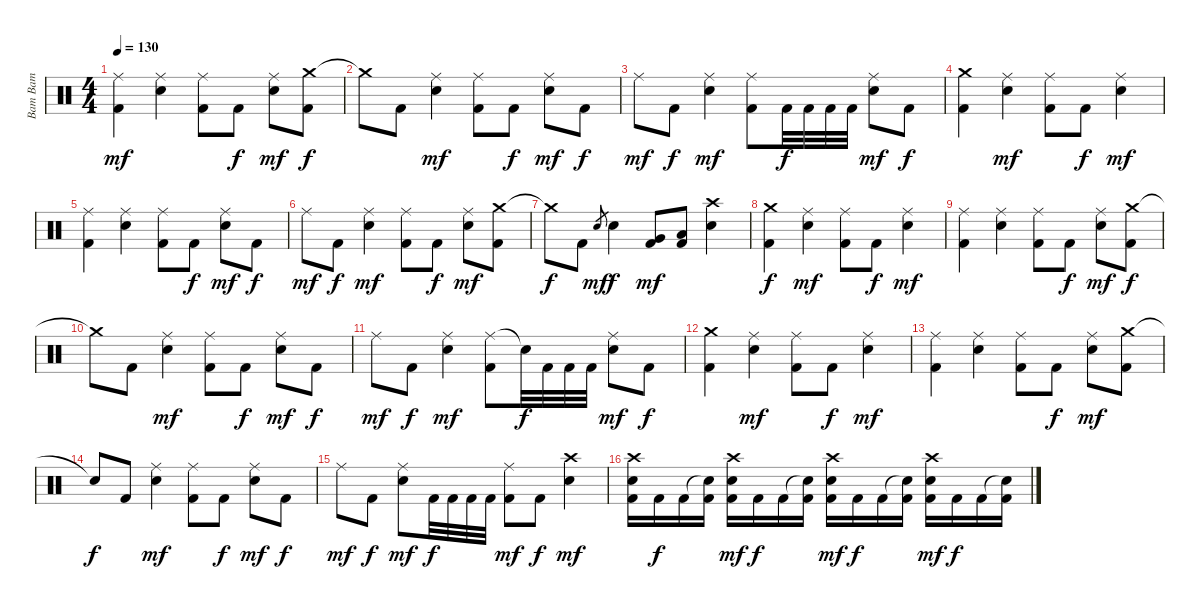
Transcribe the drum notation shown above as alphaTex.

\track ("Bam Bam" "Bam Bam") {instrument percussion}
\staff {score}
\articulation defaults
\ts (4 4)
\tempo 130
\clef neutral
\ks c
("Ride (middle)" "Kick (hit) 2").4{dy mf} ("Ride (middle)" "Electric Snare (hit)").4 ("Ride (middle)" "Kick (hit) 2").8 "Kick (hit) 2".8{dy f} ("Ride (middle)" "Electric Snare (hit)").8{dy mf} ("Crash medium (hit)" "Kick (hit) 2").8{dy f} |
"Crash medium (hit)"{t}.8 "Kick (hit) 2".8 ("Ride (middle)" "Electric Snare (hit)").4{dy mf} ("Ride (middle)" "Kick (hit) 2").8 "Kick (hit) 2".8{dy f} ("Ride (middle)" "Electric Snare (hit)").8{dy mf} "Kick (hit) 2".8{dy f} |
"Ride (middle)".8{dy mf} "Kick (hit) 2".8{dy f} ("Ride (middle)" "Electric Snare (hit)").4{dy mf} ("Ride (middle)" "Kick (hit) 2").8 "Kick (hit) 2".32{dy f} "Kick (hit) 2".32 "Kick (hit) 2".32 "Kick (hit) 2".32 ("Ride (middle)" "Electric Snare (hit)").8{dy mf} "Kick (hit) 2".8{dy f} |
("Crash medium (hit)" "Kick (hit) 2").4 ("Ride (middle)" "Electric Snare (hit)").4{dy mf} ("Ride (middle)" "Kick (hit) 2").8 "Kick (hit) 2".8{dy f} ("Ride (middle)" "Electric Snare (hit)").4{dy mf} |
("Ride (middle)" "Kick (hit) 2").4 ("Ride (middle)" "Electric Snare (hit)").4 ("Ride (middle)" "Kick (hit) 2").8 "Kick (hit) 2".8{dy f} ("Ride (middle)" "Electric Snare (hit)").8{dy mf} "Kick (hit) 2".8{dy f} |
"Ride (middle)".8{dy mf} "Kick (hit) 2".8{dy f} ("Ride (middle)" "Electric Snare (hit)").4{dy mf} ("Ride (middle)" "Kick (hit) 2").8 "Kick (hit) 2".8{dy f} ("Ride (middle)" "Electric Snare (hit)").8{dy mf} ("Crash medium (hit)" "Kick (hit) 2").8 |
"Crash medium (hit)"{t}.8{dy f} "Kick (hit) 2".8 "Electric Snare (hit)".8{gr dy mf} "Electric Snare (hit)".4{dy f} ("Very Low Tom (hit)" "Kick (hit) 2").8{dy mf} ("Low Floor Tom (hit)" "Kick (hit) 2").8 ("Crash high (hit)" "Electric Snare (hit)").4 |
("Crash medium (hit)" "Kick (hit) 2").4{dy f} ("Ride (middle)" "Electric Snare (hit)").4{dy mf} ("Ride (middle)" "Kick (hit) 2").8 "Kick (hit) 2".8{dy f} ("Ride (middle)" "Electric Snare (hit)").4{dy mf} |
("Ride (middle)" "Kick (hit) 2").4 ("Ride (middle)" "Electric Snare (hit)").4 ("Ride (middle)" "Kick (hit) 2").8 "Kick (hit) 2".8{dy f} ("Ride (middle)" "Electric Snare (hit)").8{dy mf} ("Crash medium (hit)" "Kick (hit) 2").8{dy f} |
"Crash medium (hit)"{t}.8 "Kick (hit) 2".8 ("Ride (middle)" "Electric Snare (hit)").4{dy mf} ("Ride (middle)" "Kick (hit) 2").8 "Kick (hit) 2".8{dy f} ("Ride (middle)" "Electric Snare (hit)").8{dy mf} "Kick (hit) 2".8{dy f} |
"Ride (middle)".8{dy mf} "Kick (hit) 2".8{dy f} ("Ride (middle)" "Electric Snare (hit)").4{dy mf} ("Ride (middle)" "Kick (hit) 2").8 "Snare (hit)"{t}.32{dy f} "Kick (hit) 2".32 "Kick (hit) 2".32 "Kick (hit) 2".32 ("Ride (middle)" "Electric Snare (hit)").8{dy mf} "Kick (hit) 2".8{dy f} |
("Crash medium (hit)" "Kick (hit) 2").4 ("Ride (middle)" "Electric Snare (hit)").4{dy mf} ("Ride (middle)" "Kick (hit) 2").8 "Kick (hit) 2".8{dy f} ("Ride (middle)" "Electric Snare (hit)").4{dy mf} |
("Ride (middle)" "Kick (hit) 2").4 ("Ride (middle)" "Electric Snare (hit)").4 ("Ride (middle)" "Kick (hit) 2").8 "Kick (hit) 2".8{dy f} ("Ride (middle)" "Electric Snare (hit)").8{dy mf} ("Crash medium (hit)" "Kick (hit) 2").8 |
"Snare (hit)"{t}.8{dy f} "Kick (hit) 2".8 ("Ride (middle)" "Electric Snare (hit)").4{dy mf} ("Ride (middle)" "Kick (hit) 2").8 "Kick (hit) 2".8{dy f} ("Ride (middle)" "Electric Snare (hit)").8{dy mf} "Kick (hit) 2".8{dy f} |
"Ride (middle)".8{dy mf} "Kick (hit) 2".8{dy f} ("Ride (middle)" "Electric Snare (hit)").8{dy mf} "Kick (hit) 2".32{dy f} "Kick (hit) 2".32 "Kick (hit) 2".32 "Kick (hit) 2".32 ("Ride (middle)" "Kick (hit) 2").8{dy mf} "Kick (hit) 2".8{dy f} ("Crash high (hit)" "Electric Snare (hit)").4{dy mf} |
("Crash high (hit)" "Electric Snare (hit)" "Kick (hit) 2").16 "Kick (hit) 2".16{dy f} "Kick (hit) 2".16 ("Snare (hit)"{t} "Kick (hit) 2").16 ("Crash high (hit)" "Electric Snare (hit)" "Kick (hit) 2").16{dy mf} "Kick (hit) 2".16{dy f} "Kick (hit) 2".16 ("Snare (hit)"{t} "Kick (hit) 2").16 ("Crash high (hit)" "Electric Snare (hit)" "Kick (hit) 2").16{dy mf} "Kick (hit) 2".16{dy f} "Kick (hit) 2".16 ("Snare (hit)"{t} "Kick (hit) 2").16 ("Crash high (hit)" "Electric Snare (hit)" "Kick (hit) 2").16{dy mf} "Kick (hit) 2".16{dy f} "Kick (hit) 2".16 ("Snare (hit)"{t} "Kick (hit) 2").16
